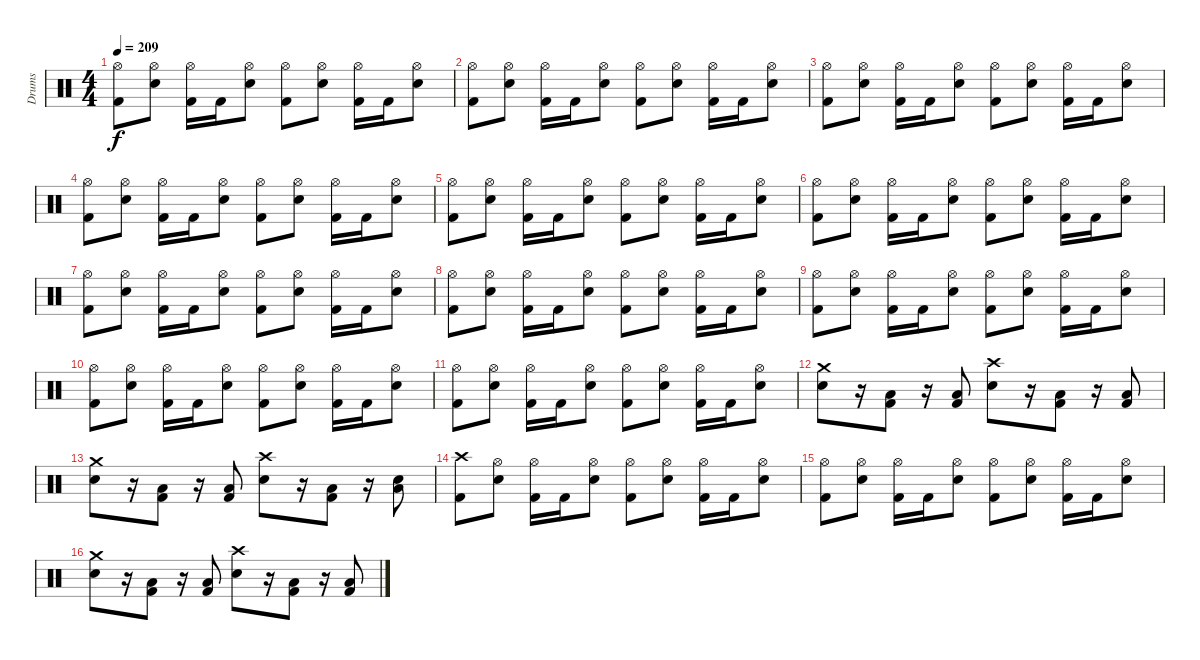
\track ("Drums" "Drums") {instrument percussion}
\staff {score}
\articulation defaults
\ts (4 4)
\tempo 209
\clef neutral
\ks c
("Kick (hit) 2" "Hi-Hat (open)").8{dy f} ("Hi-Hat (open)" "Electric Snare (hit)").8 ("Kick (hit) 2" "Hi-Hat (open)").16 "Kick (hit) 2".16 ("Hi-Hat (open)" "Electric Snare (hit)").8 ("Kick (hit) 2" "Hi-Hat (open)").8 ("Hi-Hat (open)" "Electric Snare (hit)").8 ("Kick (hit) 2" "Hi-Hat (open)").16 "Kick (hit) 2".16 ("Hi-Hat (open)" "Electric Snare (hit)").8 |
("Kick (hit) 2" "Hi-Hat (open)").8 ("Hi-Hat (open)" "Electric Snare (hit)").8 ("Kick (hit) 2" "Hi-Hat (open)").16 "Kick (hit) 2".16 ("Hi-Hat (open)" "Electric Snare (hit)").8 ("Kick (hit) 2" "Hi-Hat (open)").8 ("Hi-Hat (open)" "Electric Snare (hit)").8 ("Kick (hit) 2" "Hi-Hat (open)").16 "Kick (hit) 2".16 ("Hi-Hat (open)" "Electric Snare (hit)").8 |
("Kick (hit) 2" "Hi-Hat (open)").8 ("Hi-Hat (open)" "Electric Snare (hit)").8 ("Kick (hit) 2" "Hi-Hat (open)").16 "Kick (hit) 2".16 ("Hi-Hat (open)" "Electric Snare (hit)").8 ("Kick (hit) 2" "Hi-Hat (open)").8 ("Hi-Hat (open)" "Electric Snare (hit)").8 ("Kick (hit) 2" "Hi-Hat (open)").16 "Kick (hit) 2".16 ("Hi-Hat (open)" "Electric Snare (hit)").8 |
("Kick (hit) 2" "Hi-Hat (open)").8 ("Hi-Hat (open)" "Electric Snare (hit)").8 ("Kick (hit) 2" "Hi-Hat (open)").16 "Kick (hit) 2".16 ("Hi-Hat (open)" "Electric Snare (hit)").8 ("Kick (hit) 2" "Hi-Hat (open)").8 ("Hi-Hat (open)" "Electric Snare (hit)").8 ("Kick (hit) 2" "Hi-Hat (open)").16 "Kick (hit) 2".16 ("Hi-Hat (open)" "Electric Snare (hit)").8 |
("Kick (hit) 2" "Hi-Hat (open)").8 ("Hi-Hat (open)" "Electric Snare (hit)").8 ("Kick (hit) 2" "Hi-Hat (open)").16 "Kick (hit) 2".16 ("Hi-Hat (open)" "Electric Snare (hit)").8 ("Kick (hit) 2" "Hi-Hat (open)").8 ("Hi-Hat (open)" "Electric Snare (hit)").8 ("Kick (hit) 2" "Hi-Hat (open)").16 "Kick (hit) 2".16 ("Hi-Hat (open)" "Electric Snare (hit)").8 |
("Kick (hit) 2" "Hi-Hat (open)").8 ("Hi-Hat (open)" "Electric Snare (hit)").8 ("Kick (hit) 2" "Hi-Hat (open)").16 "Kick (hit) 2".16 ("Hi-Hat (open)" "Electric Snare (hit)").8 ("Kick (hit) 2" "Hi-Hat (open)").8 ("Hi-Hat (open)" "Electric Snare (hit)").8 ("Kick (hit) 2" "Hi-Hat (open)").16 "Kick (hit) 2".16 ("Hi-Hat (open)" "Electric Snare (hit)").8 |
("Kick (hit) 2" "Hi-Hat (open)").8 ("Hi-Hat (open)" "Electric Snare (hit)").8 ("Kick (hit) 2" "Hi-Hat (open)").16 "Kick (hit) 2".16 ("Hi-Hat (open)" "Electric Snare (hit)").8 ("Kick (hit) 2" "Hi-Hat (open)").8 ("Hi-Hat (open)" "Electric Snare (hit)").8 ("Kick (hit) 2" "Hi-Hat (open)").16 "Kick (hit) 2".16 ("Hi-Hat (open)" "Electric Snare (hit)").8 |
("Kick (hit) 2" "Hi-Hat (open)").8 ("Hi-Hat (open)" "Electric Snare (hit)").8 ("Kick (hit) 2" "Hi-Hat (open)").16 "Kick (hit) 2".16 ("Hi-Hat (open)" "Electric Snare (hit)").8 ("Kick (hit) 2" "Hi-Hat (open)").8 ("Hi-Hat (open)" "Electric Snare (hit)").8 ("Kick (hit) 2" "Hi-Hat (open)").16 "Kick (hit) 2".16 ("Hi-Hat (open)" "Electric Snare (hit)").8 |
("Kick (hit) 2" "Hi-Hat (open)").8 ("Hi-Hat (open)" "Electric Snare (hit)").8 ("Kick (hit) 2" "Hi-Hat (open)").16 "Kick (hit) 2".16 ("Hi-Hat (open)" "Electric Snare (hit)").8 ("Kick (hit) 2" "Hi-Hat (open)").8 ("Hi-Hat (open)" "Electric Snare (hit)").8 ("Kick (hit) 2" "Hi-Hat (open)").16 "Kick (hit) 2".16 ("Hi-Hat (open)" "Electric Snare (hit)").8 |
("Kick (hit) 2" "Hi-Hat (open)").8 ("Hi-Hat (open)" "Electric Snare (hit)").8 ("Kick (hit) 2" "Hi-Hat (open)").16 "Kick (hit) 2".16 ("Hi-Hat (open)" "Electric Snare (hit)").8 ("Kick (hit) 2" "Hi-Hat (open)").8 ("Hi-Hat (open)" "Electric Snare (hit)").8 ("Kick (hit) 2" "Hi-Hat (open)").16 "Kick (hit) 2".16 ("Hi-Hat (open)" "Electric Snare (hit)").8 |
("Kick (hit) 2" "Hi-Hat (open)").8 ("Hi-Hat (open)" "Electric Snare (hit)").8 ("Kick (hit) 2" "Hi-Hat (open)").16 "Kick (hit) 2".16 ("Hi-Hat (open)" "Electric Snare (hit)").8 ("Kick (hit) 2" "Hi-Hat (open)").8 ("Hi-Hat (open)" "Electric Snare (hit)").8 ("Kick (hit) 2" "Hi-Hat (open)").16 "Kick (hit) 2".16 ("Hi-Hat (open)" "Electric Snare (hit)").8 |
("Electric Snare (hit)" "Crash medium (hit)").8 r.16 ("Kick (hit) 2" "Low Floor Tom (hit)").8 r.16 ("Kick (hit) 2" "Low Floor Tom (hit)").8 ("Crash high (hit)" "Electric Snare (hit)").8 r.16 ("Kick (hit) 2" "Low Floor Tom (hit)").8 r.16 ("Kick (hit) 2" "Low Floor Tom (hit)").8 |
("Electric Snare (hit)" "Crash medium (hit)").8 r.16 ("Kick (hit) 2" "Low Floor Tom (hit)").8 r.16 ("Kick (hit) 2" "Low Floor Tom (hit)").8 ("Crash high (hit)" "Electric Snare (hit)").8 r.16 ("Kick (hit) 2" "Low Floor Tom (hit)").8 r.16 ("Low Floor Tom (hit)" "Electric Snare (hit)").8 |
("Crash high (hit)" "Kick (hit) 2").8 ("Hi-Hat (open)" "Electric Snare (hit)").8 ("Kick (hit) 2" "Hi-Hat (open)").16 "Kick (hit) 2".16 ("Hi-Hat (open)" "Electric Snare (hit)").8 ("Kick (hit) 2" "Hi-Hat (open)").8 ("Hi-Hat (open)" "Electric Snare (hit)").8 ("Kick (hit) 2" "Hi-Hat (open)").16 "Kick (hit) 2".16 ("Hi-Hat (open)" "Electric Snare (hit)").8 |
("Kick (hit) 2" "Hi-Hat (open)").8 ("Hi-Hat (open)" "Electric Snare (hit)").8 ("Kick (hit) 2" "Hi-Hat (open)").16 "Kick (hit) 2".16 ("Hi-Hat (open)" "Electric Snare (hit)").8 ("Kick (hit) 2" "Hi-Hat (open)").8 ("Hi-Hat (open)" "Electric Snare (hit)").8 ("Kick (hit) 2" "Hi-Hat (open)").16 "Kick (hit) 2".16 ("Hi-Hat (open)" "Electric Snare (hit)").8 |
("Electric Snare (hit)" "Crash medium (hit)").8 r.16 ("Kick (hit) 2" "Low Floor Tom (hit)").8 r.16 ("Kick (hit) 2" "Low Floor Tom (hit)").8 ("Crash high (hit)" "Electric Snare (hit)").8 r.16 ("Kick (hit) 2" "Low Floor Tom (hit)").8 r.16 ("Kick (hit) 2" "Low Floor Tom (hit)").8
